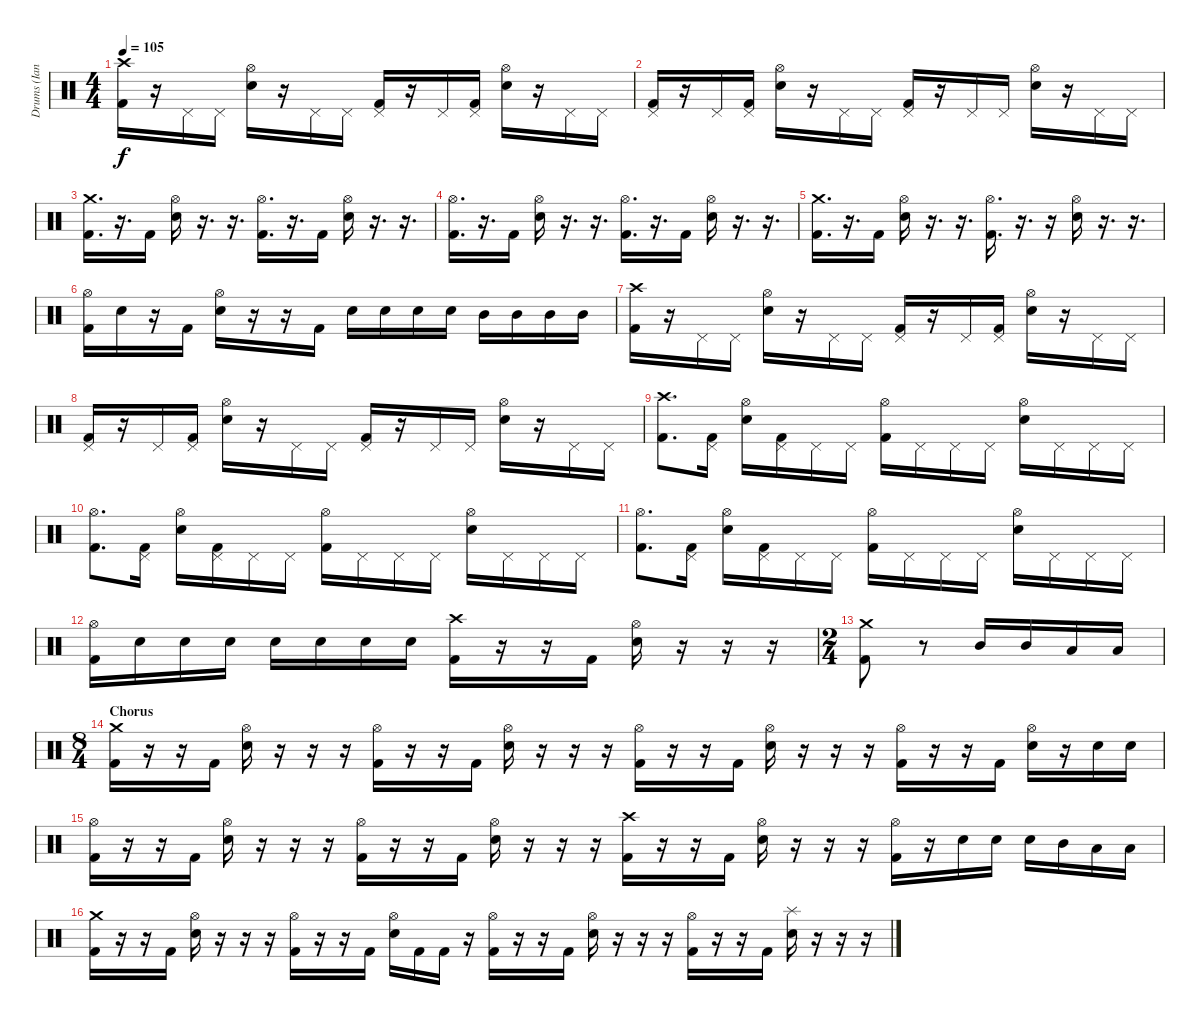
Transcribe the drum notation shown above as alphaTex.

\track ("Drums (Ian Paice)" "Drums (Ian") {instrument percussion}
\staff {score}
\articulation defaults
\ts (4 4)
\tempo 105
\clef neutral
\ks c
("Crash high (hit)" "Kick (hit) 2").16{dy f} r.16 "Pedal Hi-Hat (hit)".16 "Pedal Hi-Hat (hit)".16 ("Hi-Hat (open)" "Electric Snare (hit)").16 r.16 "Pedal Hi-Hat (hit)".16 "Pedal Hi-Hat (hit)".16 ("Pedal Hi-Hat (hit)" "Kick (hit) 2").16 r.16 "Pedal Hi-Hat (hit)".16 ("Pedal Hi-Hat (hit)" "Kick (hit) 2").16 ("Hi-Hat (open)" "Electric Snare (hit)").16 r.16 "Pedal Hi-Hat (hit)".16 "Pedal Hi-Hat (hit)".16 |
("Pedal Hi-Hat (hit)" "Kick (hit) 2").16 r.16 "Pedal Hi-Hat (hit)".16 ("Pedal Hi-Hat (hit)" "Kick (hit) 2").16 ("Hi-Hat (open)" "Electric Snare (hit)").16 r.16 "Pedal Hi-Hat (hit)".16 "Pedal Hi-Hat (hit)".16 ("Pedal Hi-Hat (hit)" "Kick (hit) 2").16 r.16 "Pedal Hi-Hat (hit)".16 "Pedal Hi-Hat (hit)".16 ("Hi-Hat (open)" "Electric Snare (hit)").16 r.16 "Pedal Hi-Hat (hit)".16 "Pedal Hi-Hat (hit)".16 |
("Crash medium (hit)" "Kick (hit) 2").16{d} r.16{d} "Kick (hit) 2".16 ("Hi-Hat (open)" "Electric Snare (hit)").16 r.16{d} r.16{d} ("Hi-Hat (open)" "Kick (hit) 2").16{d} r.16{d} "Kick (hit) 2".16 ("Hi-Hat (open)" "Electric Snare (hit)").16 r.16{d} r.16{d} |
("Hi-Hat (open)" "Kick (hit) 2").16{d} r.16{d} "Kick (hit) 2".16 ("Hi-Hat (open)" "Electric Snare (hit)").16 r.16{d} r.16{d} ("Hi-Hat (open)" "Kick (hit) 2").16{d} r.16{d} "Kick (hit) 2".16 ("Hi-Hat (open)" "Electric Snare (hit)").16 r.16{d} r.16{d} |
("Crash medium (hit)" "Kick (hit) 2").16{d} r.16{d} "Kick (hit) 2".16 ("Hi-Hat (open)" "Electric Snare (hit)").16 r.16{d} r.16{d} ("Hi-Hat (open)" "Kick (hit) 2").16{d} r.16{d} r.16 ("Hi-Hat (open)" "Electric Snare (hit)").16 r.16{d} r.16{d} |
("Hi-Hat (open)" "Kick (hit) 2").16 "Electric Snare (hit)".16 r.16 "Kick (hit) 2".16 ("Hi-Hat (open)" "Electric Snare (hit)").16 r.16 r.16 "Kick (hit) 2".16 "Electric Snare (hit)".16 "Electric Snare (hit)".16 "Electric Snare (hit)".16 "Electric Snare (hit)".16 "Mid Tom (hit)".16 "Mid Tom (hit)".16 "Mid Tom (hit)".16 "Mid Tom (hit)".16 |
("Crash high (hit)" "Kick (hit) 2").16 r.16 "Pedal Hi-Hat (hit)".16 "Pedal Hi-Hat (hit)".16 ("Hi-Hat (open)" "Electric Snare (hit)").16 r.16 "Pedal Hi-Hat (hit)".16 "Pedal Hi-Hat (hit)".16 ("Pedal Hi-Hat (hit)" "Kick (hit) 2").16 r.16 "Pedal Hi-Hat (hit)".16 ("Pedal Hi-Hat (hit)" "Kick (hit) 2").16 ("Hi-Hat (open)" "Electric Snare (hit)").16 r.16 "Pedal Hi-Hat (hit)".16 "Pedal Hi-Hat (hit)".16 |
("Pedal Hi-Hat (hit)" "Kick (hit) 2").16 r.16 "Pedal Hi-Hat (hit)".16 ("Pedal Hi-Hat (hit)" "Kick (hit) 2").16 ("Hi-Hat (open)" "Electric Snare (hit)").16 r.16 "Pedal Hi-Hat (hit)".16 "Pedal Hi-Hat (hit)".16 ("Pedal Hi-Hat (hit)" "Kick (hit) 2").16 r.16 "Pedal Hi-Hat (hit)".16 "Pedal Hi-Hat (hit)".16 ("Hi-Hat (open)" "Electric Snare (hit)").16 r.16 "Pedal Hi-Hat (hit)".16 "Pedal Hi-Hat (hit)".16 |
("Crash high (hit)" "Kick (hit) 2").8{d} ("Pedal Hi-Hat (hit)" "Kick (hit) 2").16 ("Hi-Hat (open)" "Electric Snare (hit)").16 ("Pedal Hi-Hat (hit)" "Kick (hit) 2").16 "Pedal Hi-Hat (hit)".16 "Pedal Hi-Hat (hit)".16 ("Hi-Hat (open)" "Kick (hit) 2").16 "Pedal Hi-Hat (hit)".16 "Pedal Hi-Hat (hit)".16 "Pedal Hi-Hat (hit)".16 ("Hi-Hat (open)" "Electric Snare (hit)").16 "Pedal Hi-Hat (hit)".16 "Pedal Hi-Hat (hit)".16 "Pedal Hi-Hat (hit)".16 |
("Hi-Hat (open)" "Kick (hit) 2").8{d} ("Pedal Hi-Hat (hit)" "Kick (hit) 2").16 ("Hi-Hat (open)" "Electric Snare (hit)").16 ("Pedal Hi-Hat (hit)" "Kick (hit) 2").16 "Pedal Hi-Hat (hit)".16 "Pedal Hi-Hat (hit)".16 ("Hi-Hat (open)" "Kick (hit) 2").16 "Pedal Hi-Hat (hit)".16 "Pedal Hi-Hat (hit)".16 "Pedal Hi-Hat (hit)".16 ("Hi-Hat (open)" "Electric Snare (hit)").16 "Pedal Hi-Hat (hit)".16 "Pedal Hi-Hat (hit)".16 "Pedal Hi-Hat (hit)".16 |
("Hi-Hat (open)" "Kick (hit) 2").8{d} ("Pedal Hi-Hat (hit)" "Kick (hit) 2").16 ("Hi-Hat (open)" "Electric Snare (hit)").16 ("Pedal Hi-Hat (hit)" "Kick (hit) 2").16 "Pedal Hi-Hat (hit)".16 "Pedal Hi-Hat (hit)".16 ("Hi-Hat (open)" "Kick (hit) 2").16 "Pedal Hi-Hat (hit)".16 "Pedal Hi-Hat (hit)".16 "Pedal Hi-Hat (hit)".16 ("Hi-Hat (open)" "Electric Snare (hit)").16 "Pedal Hi-Hat (hit)".16 "Pedal Hi-Hat (hit)".16 "Pedal Hi-Hat (hit)".16 |
("Hi-Hat (open)" "Kick (hit) 2").16 "Electric Snare (hit)".16 "Electric Snare (hit)".16 "Electric Snare (hit)".16 "Electric Snare (hit)".16 "Electric Snare (hit)".16 "Electric Snare (hit)".16 "Electric Snare (hit)".16 ("Crash high (hit)" "Kick (hit) 2").16 r.16 r.16 "Kick (hit) 2".16 ("Hi-Hat (open)" "Electric Snare (hit)").16 r.16 r.16 r.16 |
\ts (2 4)
("Crash medium (hit)" "Kick (hit) 2").8 r.8 "Mid Tom (hit)".16 "Mid Tom (hit)".16 "Low Tom (hit)".16 "Low Tom (hit)".16 |
\ts (8 4)
\section ("" "Chorus")
("Crash medium (hit)" "Kick (hit) 2").16 r.16 r.16 "Kick (hit) 2".16 ("Hi-Hat (open)" "Electric Snare (hit)").16 r.16 r.16 r.16 ("Hi-Hat (open)" "Kick (hit) 2").16 r.16 r.16 "Kick (hit) 2".16 ("Hi-Hat (open)" "Electric Snare (hit)").16 r.16 r.16 r.16 ("Hi-Hat (open)" "Kick (hit) 2").16 r.16 r.16 "Kick (hit) 2".16 ("Hi-Hat (open)" "Electric Snare (hit)").16 r.16 r.16 r.16 ("Hi-Hat (open)" "Kick (hit) 2").16 r.16 r.16 "Kick (hit) 2".16 ("Hi-Hat (open)" "Electric Snare (hit)").16 r.16 "Electric Snare (hit)".16 "Electric Snare (hit)".16 |
("Hi-Hat (open)" "Kick (hit) 2").16 r.16 r.16 "Kick (hit) 2".16 ("Hi-Hat (open)" "Electric Snare (hit)").16 r.16 r.16 r.16 ("Hi-Hat (open)" "Kick (hit) 2").16 r.16 r.16 "Kick (hit) 2".16 ("Hi-Hat (open)" "Electric Snare (hit)").16 r.16 r.16 r.16 ("Crash high (hit)" "Kick (hit) 2").16 r.16 r.16 "Kick (hit) 2".16 ("Hi-Hat (open)" "Electric Snare (hit)").16 r.16 r.16 r.16 ("Hi-Hat (open)" "Kick (hit) 2").16 r.16 "Electric Snare (hit)".16 "Electric Snare (hit)".16 "Electric Snare (hit)".16 "Mid Tom (hit)".16 "Low Tom (hit)".16 "Low Tom (hit)".16 |
("Crash medium (hit)" "Kick (hit) 2").16 r.16 r.16 "Kick (hit) 2".16 ("Hi-Hat (open)" "Electric Snare (hit)").16 r.16 r.16 r.16 ("Hi-Hat (open)" "Kick (hit) 2").16 r.16 r.16 "Kick (hit) 2".16 ("Hi-Hat (open)" "Electric Snare (hit)").16 "Kick (hit) 2".16 "Kick (hit) 2".16 r.16 ("Hi-Hat (open)" "Kick (hit) 2").16 r.16 r.16 "Kick (hit) 2".16 ("Hi-Hat (open)" "Electric Snare (hit)").16 r.16 r.16 r.16 ("Hi-Hat (open)" "Kick (hit) 2").16 r.16 r.16 "Kick (hit) 2".16 ("Splash (hit)" "Electric Snare (hit)").16 r.16 r.16 r.16
